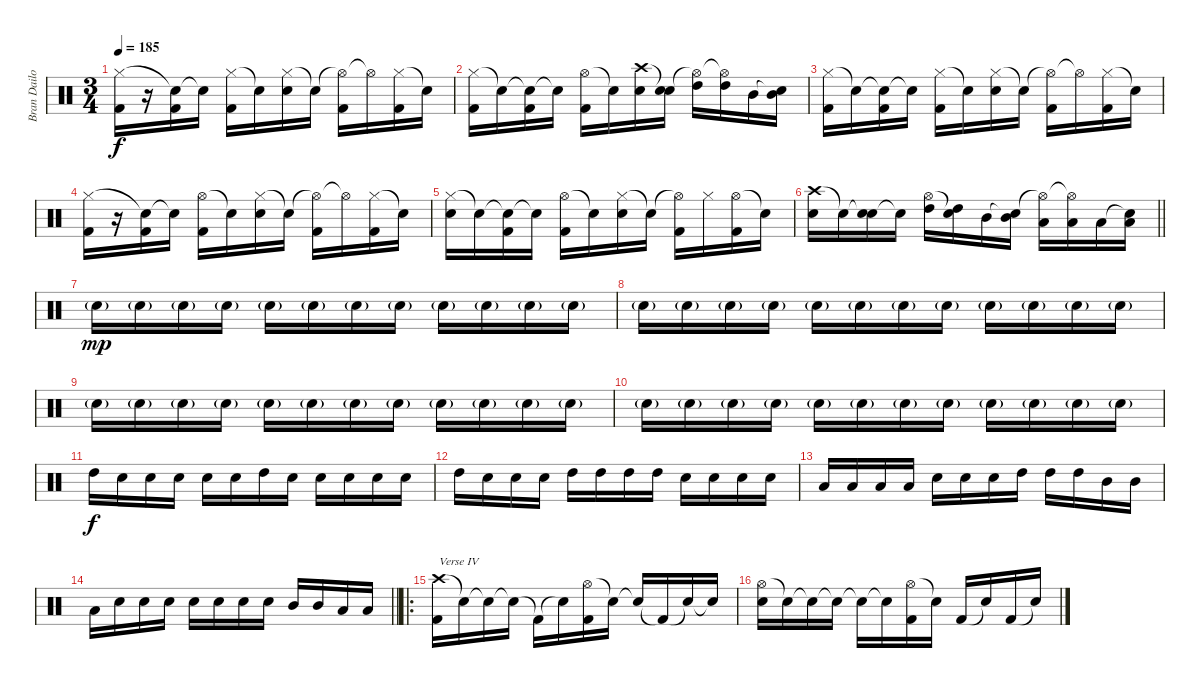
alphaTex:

\track ("Bran Dailor" "Bran Dailo") {instrument percussion}
\staff {score}
\articulation defaults
\ts (3 4)
\tempo 185
\clef neutral
\ks c
("Hi-Hat (closed)" "Kick (hit) 2").16{dy f} r.16 ("Snare (hit)"{t} "Kick (hit) 2").16 "Snare (hit)"{t}.16 ("Hi-Hat (closed)" "Kick (hit) 2").16 "Snare (hit)"{t}.16 ("Hi-Hat (closed)" "Electric Snare (hit)").16 "Snare (hit)"{t}.16 ("Hi-Hat (open)"{t} "Kick (hit) 2").16 "Hi-Hat (open)"{t}.16 ("Hi-Hat (closed)" "Kick (hit) 2").16 "Snare (hit)"{t}.16 |
("Hi-Hat (closed)" "Kick (hit) 2").16 "Snare (hit)"{t}.16 ("Snare (hit)"{t} "Kick (hit) 2").16 "Snare (hit)"{t}.16 ("Hi-Hat (open)" "Kick (hit) 2").16 "Snare (hit)"{t}.16 ("Crash high (hit)" "Electric Snare (hit)").16 ("Snare (hit)"{t} "Electric Snare (hit)").16 ("Hi-Hat (open)"{t} "High Tom (hit)").16 ("Hi-Hat (open)"{t} "High Tom (hit)").16 "Mid Tom (hit)".16 ("Snare (hit)"{t} "Mid Tom (hit)").16 |
("Hi-Hat (closed)" "Kick (hit) 2").16 "Snare (hit)"{t}.16 ("Snare (hit)"{t} "Kick (hit) 2").16 "Snare (hit)"{t}.16 ("Hi-Hat (closed)" "Kick (hit) 2").16 "Snare (hit)"{t}.16 ("Hi-Hat (closed)" "Electric Snare (hit)").16 "Snare (hit)"{t}.16 ("Hi-Hat (open)"{t} "Kick (hit) 2").16 "Hi-Hat (open)"{t}.16 ("Hi-Hat (closed)" "Kick (hit) 2").16 "Snare (hit)"{t}.16 |
("Hi-Hat (closed)" "Kick (hit) 2").16 r.16 ("Snare (hit)"{t} "Kick (hit) 2").16 "Snare (hit)"{t}.16 ("Hi-Hat (open)" "Kick (hit) 2").16 "Snare (hit)"{t}.16 ("Hi-Hat (closed)" "Electric Snare (hit)").16 "Snare (hit)"{t}.16 ("Hi-Hat (open)"{t} "Kick (hit) 2").16 "Hi-Hat (open)"{t}.16 ("Hi-Hat (closed)" "Kick (hit) 2").16 "Snare (hit)"{t}.16 |
("Hi-Hat (closed)" "Electric Snare (hit)").16 "Snare (hit)"{t}.16 ("Snare (hit)"{t} "Kick (hit) 2").16 "Snare (hit)"{t}.16 ("Hi-Hat (open)" "Kick (hit) 2").16 "Snare (hit)"{t}.16 ("Hi-Hat (closed)" "Electric Snare (hit)").16 "Snare (hit)"{t}.16 ("Hi-Hat (open)"{t} "Kick (hit) 2").16 "Hi-Hat (closed)".16 ("Hi-Hat (open)" "Kick (hit) 2").16 "Snare (hit)"{t}.16 |
\barLineRight lightlight
("Crash high (hit)" "Electric Snare (hit)").16 "Snare (hit)"{t}.16 ("Snare (hit)"{t} "Electric Snare (hit)").16 "Snare (hit)"{t}.16 ("Hi-Hat (open)" "High Tom (hit)").16 ("Snare (hit)"{t} "High Tom (hit)").16 "Mid Tom (hit)".16 ("Snare (hit)"{t} "Mid Tom (hit)").16 ("Hi-Hat (open)"{t} "Low Tom (hit)").16 ("Hi-Hat (open)"{t} "Low Tom (hit)").16 "Low Tom (hit)".16 ("Snare (hit)"{t} "Low Tom (hit)").16 |
"Electric Snare (hit)"{g}.16{dy mp} "Electric Snare (hit)"{g}.16 "Electric Snare (hit)"{g}.16 "Electric Snare (hit)"{g}.16 "Electric Snare (hit)"{g}.16 "Electric Snare (hit)"{g}.16 "Electric Snare (hit)"{g}.16 "Electric Snare (hit)"{g}.16 "Electric Snare (hit)"{g}.16 "Electric Snare (hit)"{g}.16 "Electric Snare (hit)"{g}.16 "Electric Snare (hit)"{g}.16 |
"Electric Snare (hit)"{g}.16 "Electric Snare (hit)"{g}.16 "Electric Snare (hit)"{g}.16 "Electric Snare (hit)"{g}.16 "Electric Snare (hit)"{g}.16 "Electric Snare (hit)"{g}.16 "Electric Snare (hit)"{g}.16 "Electric Snare (hit)"{g}.16 "Electric Snare (hit)"{g}.16 "Electric Snare (hit)"{g}.16 "Electric Snare (hit)"{g}.16 "Electric Snare (hit)"{g}.16 |
"Electric Snare (hit)"{g}.16 "Electric Snare (hit)"{g}.16 "Electric Snare (hit)"{g}.16 "Electric Snare (hit)"{g}.16 "Electric Snare (hit)"{g}.16 "Electric Snare (hit)"{g}.16 "Electric Snare (hit)"{g}.16 "Electric Snare (hit)"{g}.16 "Electric Snare (hit)"{g}.16 "Electric Snare (hit)"{g}.16 "Electric Snare (hit)"{g}.16 "Electric Snare (hit)"{g}.16 |
"Electric Snare (hit)"{g}.16 "Electric Snare (hit)"{g}.16 "Electric Snare (hit)"{g}.16 "Electric Snare (hit)"{g}.16 "Electric Snare (hit)"{g}.16 "Electric Snare (hit)"{g}.16 "Electric Snare (hit)"{g}.16 "Electric Snare (hit)"{g}.16 "Electric Snare (hit)"{g}.16 "Electric Snare (hit)"{g}.16 "Electric Snare (hit)"{g}.16 "Electric Snare (hit)"{g}.16 |
"High Tom (hit)".16{dy f} "Electric Snare (hit)".16 "Electric Snare (hit)".16 "Electric Snare (hit)".16 "Electric Snare (hit)".16 "Electric Snare (hit)".16 "High Tom (hit)".16 "Electric Snare (hit)".16 "Electric Snare (hit)".16 "Electric Snare (hit)".16 "Electric Snare (hit)".16 "Electric Snare (hit)".16 |
"High Tom (hit)".16 "Electric Snare (hit)".16 "Electric Snare (hit)".16 "Electric Snare (hit)".16 "High Tom (hit)".16 "High Tom (hit)".16 "High Tom (hit)".16 "High Tom (hit)".16 "Electric Snare (hit)".16 "Electric Snare (hit)".16 "Electric Snare (hit)".16 "Electric Snare (hit)".16 |
"Low Tom (hit)".16 "Low Tom (hit)".16 "Low Tom (hit)".16 "Low Tom (hit)".16 "Electric Snare (hit)".16 "Electric Snare (hit)".16 "Electric Snare (hit)".16 "High Tom (hit)".16 "High Tom (hit)".16 "High Tom (hit)".16 "Mid Tom (hit)".16 "Mid Tom (hit)".16 |
\barLineRight lightlight "Low Tom (hit)".16 "Electric Snare (hit)".16 "Electric Snare (hit)".16 "Electric Snare (hit)".16 "Electric Snare (hit)".16 "Electric Snare (hit)".16 "Electric Snare (hit)".16 "Electric Snare (hit)".16 "Mid Tom (hit)".16 "Mid Tom (hit)".16 "Low Tom (hit)".16 "Low Tom (hit)".16
|
\ro
("Crash high (hit)" "Kick (hit) 2").16{txt "Verse IV"} "Snare (hit)"{t}.16 "Snare (hit)"{t}.16 "Snare (hit)"{t}.16 "Kick (hit) 2"{t}.16 "Snare (hit)"{t}.16 ("Hi-Hat (open)" "Kick (hit) 2").16 "Snare (hit)"{t}.16 "Snare (hit)"{t}.16 "Kick (hit) 2"{t}.16 "Snare (hit)"{t}.16 "Snare (hit)"{t}.16 |
("Hi-Hat (open)" "Electric Snare (hit)").16 "Snare (hit)"{t}.16 "Snare (hit)"{t}.16 "Snare (hit)"{t}.16 "Snare (hit)"{t}.16 "Snare (hit)"{t}.16 ("Hi-Hat (open)" "Kick (hit) 2").16 "Snare (hit)"{t}.16 "Kick (hit) 2".16 "Snare (hit)"{t}.16 "Kick (hit) 2".16 "Snare (hit)"{t}.16
